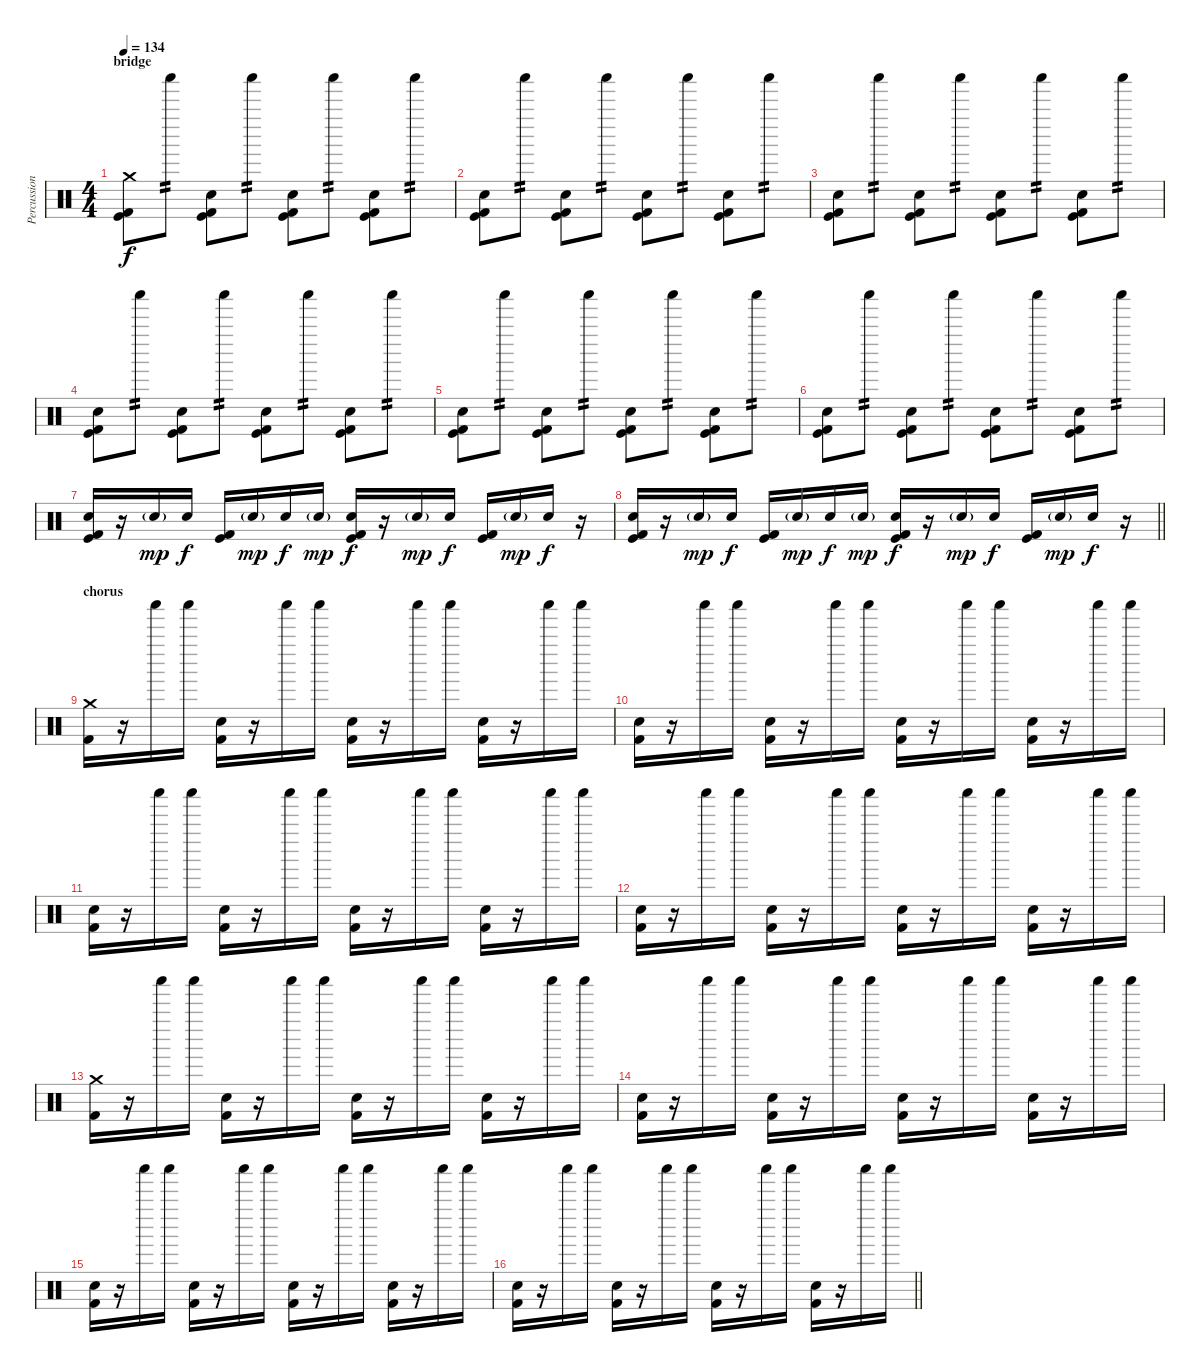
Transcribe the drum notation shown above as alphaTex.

\track ("Percussion" "Percussion") {instrument percussion}
\staff {score}
\articulation defaults
\ts (4 4)
\section ("" "bridge")
\tempo 134
\clef neutral
\ks c
("Crash medium (hit)" "Kick (hit) 2" "Kick (hit)").8{dy f} "Shaker (hit)".8{tp 2} ("Hand Clap (hit)" "Kick (hit) 2" "Kick (hit)").8 "Shaker (hit)".8{tp 2} ("Hand Clap (hit)" "Kick (hit) 2" "Kick (hit)").8 "Shaker (hit)".8{tp 2} ("Hand Clap (hit)" "Kick (hit) 2" "Kick (hit)").8 "Shaker (hit)".8{tp 2} |
("Hand Clap (hit)" "Kick (hit) 2" "Kick (hit)").8 "Shaker (hit)".8{tp 2} ("Hand Clap (hit)" "Kick (hit) 2" "Kick (hit)").8 "Shaker (hit)".8{tp 2} ("Hand Clap (hit)" "Kick (hit) 2" "Kick (hit)").8 "Shaker (hit)".8{tp 2} ("Hand Clap (hit)" "Kick (hit) 2" "Kick (hit)").8 "Shaker (hit)".8{tp 2} |
("Hand Clap (hit)" "Kick (hit) 2" "Kick (hit)").8 "Shaker (hit)".8{tp 2} ("Hand Clap (hit)" "Kick (hit) 2" "Kick (hit)").8 "Shaker (hit)".8{tp 2} ("Hand Clap (hit)" "Kick (hit) 2" "Kick (hit)").8 "Shaker (hit)".8{tp 2} ("Hand Clap (hit)" "Kick (hit) 2" "Kick (hit)").8 "Shaker (hit)".8{tp 2} |
("Hand Clap (hit)" "Kick (hit) 2" "Kick (hit)").8 "Shaker (hit)".8{tp 2} ("Hand Clap (hit)" "Kick (hit) 2" "Kick (hit)").8 "Shaker (hit)".8{tp 2} ("Hand Clap (hit)" "Kick (hit) 2" "Kick (hit)").8 "Shaker (hit)".8{tp 2} ("Hand Clap (hit)" "Kick (hit) 2" "Kick (hit)").8 "Shaker (hit)".8{tp 2} |
("Hand Clap (hit)" "Kick (hit) 2" "Kick (hit)").8 "Shaker (hit)".8{tp 2} ("Hand Clap (hit)" "Kick (hit) 2" "Kick (hit)").8 "Shaker (hit)".8{tp 2} ("Hand Clap (hit)" "Kick (hit) 2" "Kick (hit)").8 "Shaker (hit)".8{tp 2} ("Hand Clap (hit)" "Kick (hit) 2" "Kick (hit)").8 "Shaker (hit)".8{tp 2} |
("Hand Clap (hit)" "Kick (hit) 2" "Kick (hit)").8 "Shaker (hit)".8{tp 2} ("Hand Clap (hit)" "Kick (hit) 2" "Kick (hit)").8 "Shaker (hit)".8{tp 2} ("Hand Clap (hit)" "Kick (hit) 2" "Kick (hit)").8 "Shaker (hit)".8{tp 2} ("Hand Clap (hit)" "Kick (hit) 2" "Kick (hit)").8 "Shaker (hit)".8{tp 2} |
("Kick (hit) 2" "Kick (hit)" "Electric Snare (hit)").16 r.16 "Electric Snare (hit)"{g}.16{dy mp} "Electric Snare (hit)".16{dy f} ("Kick (hit) 2" "Kick (hit)").16 "Electric Snare (hit)"{g}.16{dy mp} "Electric Snare (hit)".16{dy f} "Electric Snare (hit)"{g}.16{dy mp} ("Kick (hit) 2" "Kick (hit)" "Electric Snare (hit)").16{dy f} r.16 "Electric Snare (hit)"{g}.16{dy mp} "Electric Snare (hit)".16{dy f} ("Kick (hit) 2" "Kick (hit)").16 "Electric Snare (hit)"{g}.16{dy mp} "Electric Snare (hit)".16{dy f} r.16 |
\barLineRight lightlight
("Kick (hit) 2" "Kick (hit)" "Electric Snare (hit)").16 r.16 "Electric Snare (hit)"{g}.16{dy mp} "Electric Snare (hit)".16{dy f} ("Kick (hit) 2" "Kick (hit)").16 "Electric Snare (hit)"{g}.16{dy mp} "Electric Snare (hit)".16{dy f} "Electric Snare (hit)"{g}.16{dy mp} ("Kick (hit) 2" "Kick (hit)" "Electric Snare (hit)").16{dy f} r.16 "Electric Snare (hit)"{g}.16{dy mp} "Electric Snare (hit)".16{dy f} ("Kick (hit) 2" "Kick (hit)").16 "Electric Snare (hit)"{g}.16{dy mp} "Electric Snare (hit)".16{dy f} r.16 |
\section ("" "chorus")
("Crash medium (hit)" "Kick (hit) 2").16 r.16 "Shaker (hit)".16 "Shaker (hit)".16 ("Hand Clap (hit)" "Kick (hit) 2").16 r.16 "Shaker (hit)".16 "Shaker (hit)".16 ("Hand Clap (hit)" "Kick (hit) 2").16 r.16 "Shaker (hit)".16 "Shaker (hit)".16 ("Hand Clap (hit)" "Kick (hit) 2").16 r.16 "Shaker (hit)".16 "Shaker (hit)".16 |
("Hand Clap (hit)" "Kick (hit) 2").16 r.16 "Shaker (hit)".16 "Shaker (hit)".16 ("Hand Clap (hit)" "Kick (hit) 2").16 r.16 "Shaker (hit)".16 "Shaker (hit)".16 ("Hand Clap (hit)" "Kick (hit) 2").16 r.16 "Shaker (hit)".16 "Shaker (hit)".16 ("Hand Clap (hit)" "Kick (hit) 2").16 r.16 "Shaker (hit)".16 "Shaker (hit)".16 |
("Hand Clap (hit)" "Kick (hit) 2").16 r.16 "Shaker (hit)".16 "Shaker (hit)".16 ("Hand Clap (hit)" "Kick (hit) 2").16 r.16 "Shaker (hit)".16 "Shaker (hit)".16 ("Hand Clap (hit)" "Kick (hit) 2").16 r.16 "Shaker (hit)".16 "Shaker (hit)".16 ("Hand Clap (hit)" "Kick (hit) 2").16 r.16 "Shaker (hit)".16 "Shaker (hit)".16 |
("Hand Clap (hit)" "Kick (hit) 2").16 r.16 "Shaker (hit)".16 "Shaker (hit)".16 ("Hand Clap (hit)" "Kick (hit) 2").16 r.16 "Shaker (hit)".16 "Shaker (hit)".16 ("Hand Clap (hit)" "Kick (hit) 2").16 r.16 "Shaker (hit)".16 "Shaker (hit)".16 ("Hand Clap (hit)" "Kick (hit) 2").16 r.16 "Shaker (hit)".16 "Shaker (hit)".16 |
("Crash medium (hit)" "Kick (hit) 2").16 r.16 "Shaker (hit)".16 "Shaker (hit)".16 ("Hand Clap (hit)" "Kick (hit) 2").16 r.16 "Shaker (hit)".16 "Shaker (hit)".16 ("Hand Clap (hit)" "Kick (hit) 2").16 r.16 "Shaker (hit)".16 "Shaker (hit)".16 ("Hand Clap (hit)" "Kick (hit) 2").16 r.16 "Shaker (hit)".16 "Shaker (hit)".16 |
("Hand Clap (hit)" "Kick (hit) 2").16 r.16 "Shaker (hit)".16 "Shaker (hit)".16 ("Hand Clap (hit)" "Kick (hit) 2").16 r.16 "Shaker (hit)".16 "Shaker (hit)".16 ("Hand Clap (hit)" "Kick (hit) 2").16 r.16 "Shaker (hit)".16 "Shaker (hit)".16 ("Hand Clap (hit)" "Kick (hit) 2").16 r.16 "Shaker (hit)".16 "Shaker (hit)".16 |
("Hand Clap (hit)" "Kick (hit) 2").16 r.16 "Shaker (hit)".16 "Shaker (hit)".16 ("Hand Clap (hit)" "Kick (hit) 2").16 r.16 "Shaker (hit)".16 "Shaker (hit)".16 ("Hand Clap (hit)" "Kick (hit) 2").16 r.16 "Shaker (hit)".16 "Shaker (hit)".16 ("Hand Clap (hit)" "Kick (hit) 2").16 r.16 "Shaker (hit)".16 "Shaker (hit)".16 |
\barLineRight lightlight
("Hand Clap (hit)" "Kick (hit) 2").16 r.16 "Shaker (hit)".16 "Shaker (hit)".16 ("Hand Clap (hit)" "Kick (hit) 2").16 r.16 "Shaker (hit)".16 "Shaker (hit)".16 ("Hand Clap (hit)" "Kick (hit) 2").16 r.16 "Shaker (hit)".16 "Shaker (hit)".16 ("Hand Clap (hit)" "Kick (hit) 2").16 r.16 "Shaker (hit)".16 "Shaker (hit)".16
